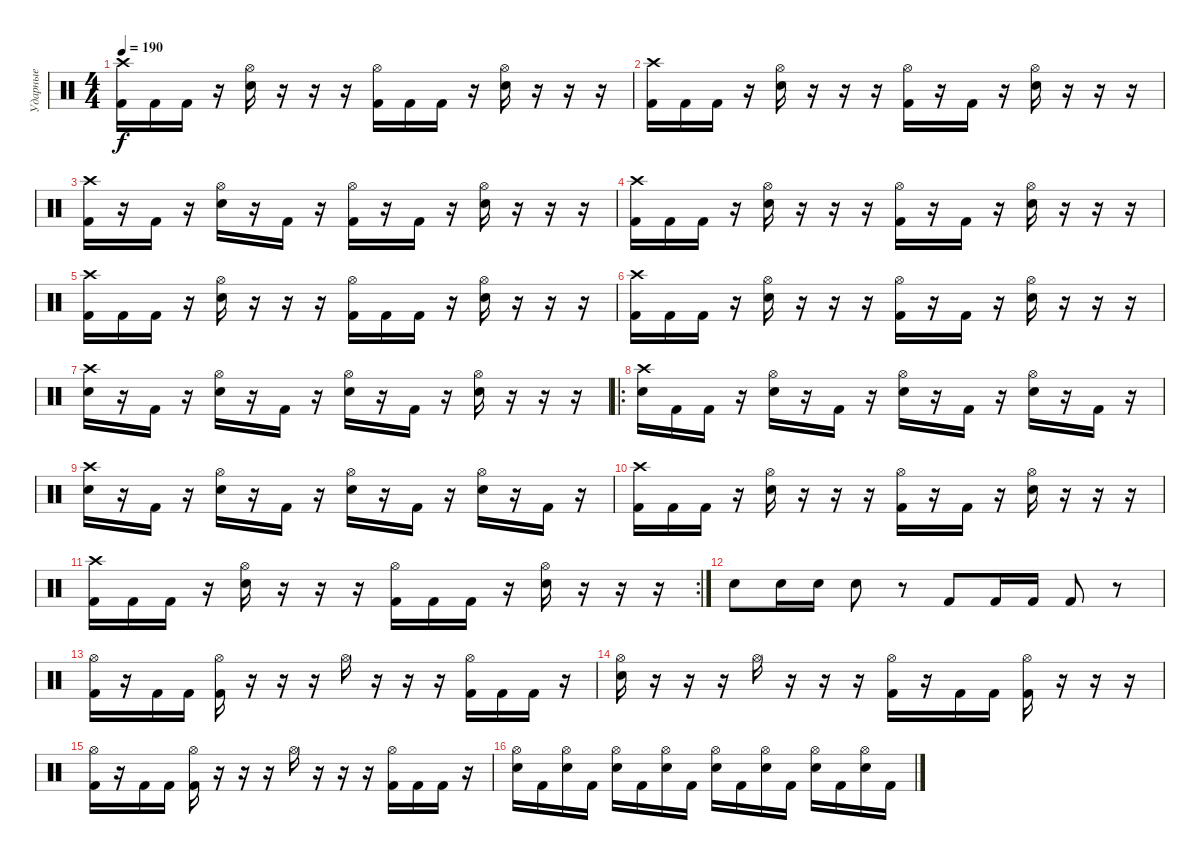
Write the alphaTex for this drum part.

\track ("Ударные" "Ударные") {instrument percussion}
\staff {score}
\articulation defaults
\ts (4 4)
\tempo 190
\clef neutral
\ks c
("Crash high (hit)" "Kick (hit) 2").16{dy f} "Kick (hit) 2".16 "Kick (hit) 2".16 r.16 ("Hi-Hat (open)" "Electric Snare (hit)").16 r.16 r.16 r.16 ("Hi-Hat (open)" "Kick (hit) 2").16 "Kick (hit) 2".16 "Kick (hit) 2".16 r.16 ("Hi-Hat (open)" "Electric Snare (hit)").16 r.16 r.16 r.16 |
("Crash high (hit)" "Kick (hit) 2").16 "Kick (hit) 2".16 "Kick (hit) 2".16 r.16 ("Hi-Hat (open)" "Electric Snare (hit)").16 r.16 r.16 r.16 ("Hi-Hat (open)" "Kick (hit) 2").16 r.16 "Kick (hit) 2".16 r.16 ("Hi-Hat (open)" "Electric Snare (hit)").16 r.16 r.16 r.16 |
("Crash high (hit)" "Kick (hit) 2").16 r.16 "Kick (hit) 2".16 r.16 ("Hi-Hat (open)" "Electric Snare (hit)").16 r.16 "Kick (hit) 2".16 r.16 ("Hi-Hat (open)" "Kick (hit) 2").16 r.16 "Kick (hit) 2".16 r.16 ("Hi-Hat (open)" "Electric Snare (hit)").16 r.16 r.16 r.16 |
("Crash high (hit)" "Kick (hit) 2").16 "Kick (hit) 2".16 "Kick (hit) 2".16 r.16 ("Hi-Hat (open)" "Electric Snare (hit)").16 r.16 r.16 r.16 ("Hi-Hat (open)" "Kick (hit) 2").16 r.16 "Kick (hit) 2".16 r.16 ("Hi-Hat (open)" "Electric Snare (hit)").16 r.16 r.16 r.16 |
("Crash high (hit)" "Kick (hit) 2").16 "Kick (hit) 2".16 "Kick (hit) 2".16 r.16 ("Hi-Hat (open)" "Electric Snare (hit)").16 r.16 r.16 r.16 ("Hi-Hat (open)" "Kick (hit) 2").16 "Kick (hit) 2".16 "Kick (hit) 2".16 r.16 ("Hi-Hat (open)" "Electric Snare (hit)").16 r.16 r.16 r.16 |
("Crash high (hit)" "Kick (hit) 2").16 "Kick (hit) 2".16 "Kick (hit) 2".16 r.16 ("Hi-Hat (open)" "Electric Snare (hit)").16 r.16 r.16 r.16 ("Hi-Hat (open)" "Kick (hit) 2").16 r.16 "Kick (hit) 2".16 r.16 ("Hi-Hat (open)" "Electric Snare (hit)").16 r.16 r.16 r.16 |
("Crash high (hit)" "Electric Snare (hit)").16 r.16 "Kick (hit) 2".16 r.16 ("Hi-Hat (open)" "Electric Snare (hit)").16 r.16 "Kick (hit) 2".16 r.16 ("Hi-Hat (open)" "Electric Snare (hit)").16 r.16 "Kick (hit) 2".16 r.16 ("Hi-Hat (open)" "Electric Snare (hit)").16 r.16 r.16 r.16 |
\ro
("Crash high (hit)" "Electric Snare (hit)").16 "Kick (hit) 2".16 "Kick (hit) 2".16 r.16 ("Hi-Hat (open)" "Electric Snare (hit)").16 r.16 "Kick (hit) 2".16 r.16 ("Hi-Hat (open)" "Electric Snare (hit)").16 r.16 "Kick (hit) 2".16 r.16 ("Hi-Hat (open)" "Electric Snare (hit)").16 r.16 "Kick (hit) 2".16 r.16 |
("Crash high (hit)" "Electric Snare (hit)").16 r.16 "Kick (hit) 2".16 r.16 ("Hi-Hat (open)" "Electric Snare (hit)").16 r.16 "Kick (hit) 2".16 r.16 ("Hi-Hat (open)" "Electric Snare (hit)").16 r.16 "Kick (hit) 2".16 r.16 ("Hi-Hat (open)" "Electric Snare (hit)").16 r.16 "Kick (hit) 2".16 r.16 |
("Crash high (hit)" "Kick (hit) 2").16 "Kick (hit) 2".16 "Kick (hit) 2".16 r.16 ("Hi-Hat (open)" "Electric Snare (hit)").16 r.16 r.16 r.16 ("Hi-Hat (open)" "Kick (hit) 2").16 r.16 "Kick (hit) 2".16 r.16 ("Hi-Hat (open)" "Electric Snare (hit)").16 r.16 r.16 r.16 |
\rc 2
("Crash high (hit)" "Kick (hit) 2").16 "Kick (hit) 2".16 "Kick (hit) 2".16 r.16 ("Hi-Hat (open)" "Electric Snare (hit)").16 r.16 r.16 r.16 ("Hi-Hat (open)" "Kick (hit) 2").16 "Kick (hit) 2".16 "Kick (hit) 2".16 r.16 ("Hi-Hat (open)" "Electric Snare (hit)").16 r.16 r.16 r.16 |
"Electric Snare (hit)".8 "Electric Snare (hit)".16 "Electric Snare (hit)".16 "Electric Snare (hit)".8 r.8 "Kick (hit) 2".8 "Kick (hit) 2".16 "Kick (hit) 2".16 "Kick (hit) 2".8 r.8 |
("Hi-Hat (open)" "Kick (hit) 2").16 r.16 "Kick (hit) 2".16 "Kick (hit) 2".16 ("Hi-Hat (open)" "Kick (hit) 2").16 r.16 r.16 r.16 "Hi-Hat (open)".16 r.16 r.16 r.16 ("Hi-Hat (open)" "Kick (hit) 2").16 "Kick (hit) 2".16 "Kick (hit) 2".16 r.16 |
("Hi-Hat (open)" "Electric Snare (hit)").16 r.16 r.16 r.16 "Hi-Hat (open)".16 r.16 r.16 r.16 ("Hi-Hat (open)" "Kick (hit) 2").16 r.16 "Kick (hit) 2".16 "Kick (hit) 2".16 ("Hi-Hat (open)" "Kick (hit) 2").16 r.16 r.16 r.16 |
("Hi-Hat (open)" "Kick (hit) 2").16 r.16 "Kick (hit) 2".16 "Kick (hit) 2".16 ("Hi-Hat (open)" "Kick (hit) 2").16 r.16 r.16 r.16 "Hi-Hat (open)".16 r.16 r.16 r.16 ("Hi-Hat (open)" "Kick (hit) 2").16 "Kick (hit) 2".16 "Kick (hit) 2".16 r.16 |
("Hi-Hat (open)" "Electric Snare (hit)").16 "Kick (hit) 2".16 ("Hi-Hat (open)" "Electric Snare (hit)").16 "Kick (hit) 2".16 ("Hi-Hat (open)" "Electric Snare (hit)").16 "Kick (hit) 2".16 ("Hi-Hat (open)" "Electric Snare (hit)").16 "Kick (hit) 2".16 ("Hi-Hat (open)" "Electric Snare (hit)").16 "Kick (hit) 2".16 ("Hi-Hat (open)" "Electric Snare (hit)").16 "Kick (hit) 2".16 ("Hi-Hat (open)" "Electric Snare (hit)").16 "Kick (hit) 2".16 ("Hi-Hat (open)" "Electric Snare (hit)").16 "Kick (hit) 2".16
